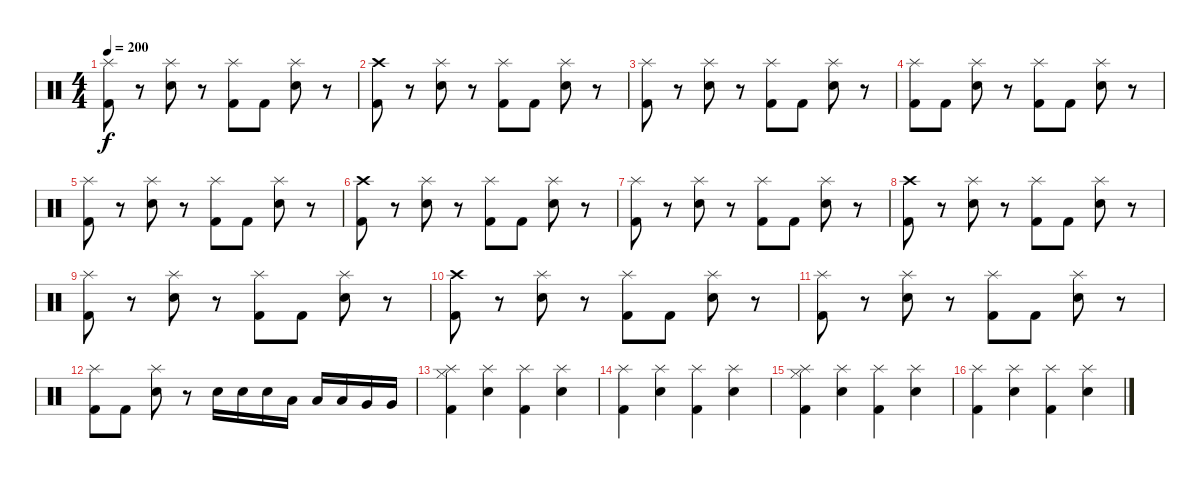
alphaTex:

\track "" {instrument percussion}
\staff {score}
\articulation defaults
\ts (4 4)
\tempo 200
\clef neutral
\ks c
("Splash (hit)" "Kick (hit) 2").8{dy f} r.8 ("Splash (hit)" "Electric Snare (hit)").8 r.8 ("Splash (hit)" "Kick (hit) 2").8 "Kick (hit) 2".8 ("Splash (hit)" "Electric Snare (hit)").8 r.8 |
("Crash high (hit)" "Kick (hit) 2").8 r.8 ("Splash (hit)" "Electric Snare (hit)").8 r.8 ("Splash (hit)" "Kick (hit) 2").8 "Kick (hit) 2".8 ("Splash (hit)" "Electric Snare (hit)").8 r.8 |
("Splash (hit)" "Kick (hit) 2").8 r.8 ("Splash (hit)" "Electric Snare (hit)").8 r.8 ("Splash (hit)" "Kick (hit) 2").8 "Kick (hit) 2".8 ("Splash (hit)" "Electric Snare (hit)").8 r.8 |
("Splash (hit)" "Kick (hit) 2").8 "Kick (hit) 2".8 ("Splash (hit)" "Electric Snare (hit)").8 r.8 ("Splash (hit)" "Kick (hit) 2").8 "Kick (hit) 2".8 ("Splash (hit)" "Electric Snare (hit)").8 r.8 |
("Splash (hit)" "Kick (hit) 2").8 r.8 ("Splash (hit)" "Electric Snare (hit)").8 r.8 ("Splash (hit)" "Kick (hit) 2").8 "Kick (hit) 2".8 ("Splash (hit)" "Electric Snare (hit)").8 r.8 |
("Crash high (hit)" "Kick (hit) 2").8 r.8 ("Splash (hit)" "Electric Snare (hit)").8 r.8 ("Splash (hit)" "Kick (hit) 2").8 "Kick (hit) 2".8 ("Splash (hit)" "Electric Snare (hit)").8 r.8 |
("Splash (hit)" "Kick (hit) 2").8 r.8 ("Splash (hit)" "Electric Snare (hit)").8 r.8 ("Splash (hit)" "Kick (hit) 2").8 "Kick (hit) 2".8 ("Splash (hit)" "Electric Snare (hit)").8 r.8 |
("Crash high (hit)" "Kick (hit) 2").8 r.8 ("Splash (hit)" "Electric Snare (hit)").8 r.8 ("Splash (hit)" "Kick (hit) 2").8 "Kick (hit) 2".8 ("Splash (hit)" "Electric Snare (hit)").8 r.8 |
("Splash (hit)" "Kick (hit) 2").8 r.8 ("Splash (hit)" "Electric Snare (hit)").8 r.8 ("Splash (hit)" "Kick (hit) 2").8 "Kick (hit) 2".8 ("Splash (hit)" "Electric Snare (hit)").8 r.8 |
("Crash high (hit)" "Kick (hit) 2").8 r.8 ("Splash (hit)" "Electric Snare (hit)").8 r.8 ("Splash (hit)" "Kick (hit) 2").8 "Kick (hit) 2".8 ("Splash (hit)" "Electric Snare (hit)").8 r.8 |
("Splash (hit)" "Kick (hit) 2").8 r.8 ("Splash (hit)" "Electric Snare (hit)").8 r.8 ("Splash (hit)" "Kick (hit) 2").8 "Kick (hit) 2".8 ("Splash (hit)" "Electric Snare (hit)").8 r.8 |
("Splash (hit)" "Kick (hit) 2").8 "Kick (hit) 2".8 ("Splash (hit)" "Electric Snare (hit)").8 r.8 "Electric Snare (hit)".16 "Electric Snare (hit)".16 "Electric Snare (hit)".16 "Low Tom (hit)".16 "Low Tom (hit)".16 "Low Tom (hit)".16 "Very Low Tom (hit)".16 "Very Low Tom (hit)".16 |
("Splash (hit)" "Hi-Hat (closed)" "Kick (hit) 2").4 ("Splash (hit)" "Electric Snare (hit)").4 ("Splash (hit)" "Kick (hit) 2").4 ("Splash (hit)" "Electric Snare (hit)").4 |
("Splash (hit)" "Kick (hit) 2").4 ("Splash (hit)" "Electric Snare (hit)").4 ("Splash (hit)" "Kick (hit) 2").4 ("Splash (hit)" "Electric Snare (hit)").4 |
("Splash (hit)" "Hi-Hat (closed)" "Kick (hit) 2").4 ("Splash (hit)" "Electric Snare (hit)").4 ("Splash (hit)" "Kick (hit) 2").4 ("Splash (hit)" "Electric Snare (hit)").4 |
("Splash (hit)" "Kick (hit) 2").4 ("Splash (hit)" "Electric Snare (hit)").4 ("Splash (hit)" "Kick (hit) 2").4 ("Splash (hit)" "Electric Snare (hit)").4
